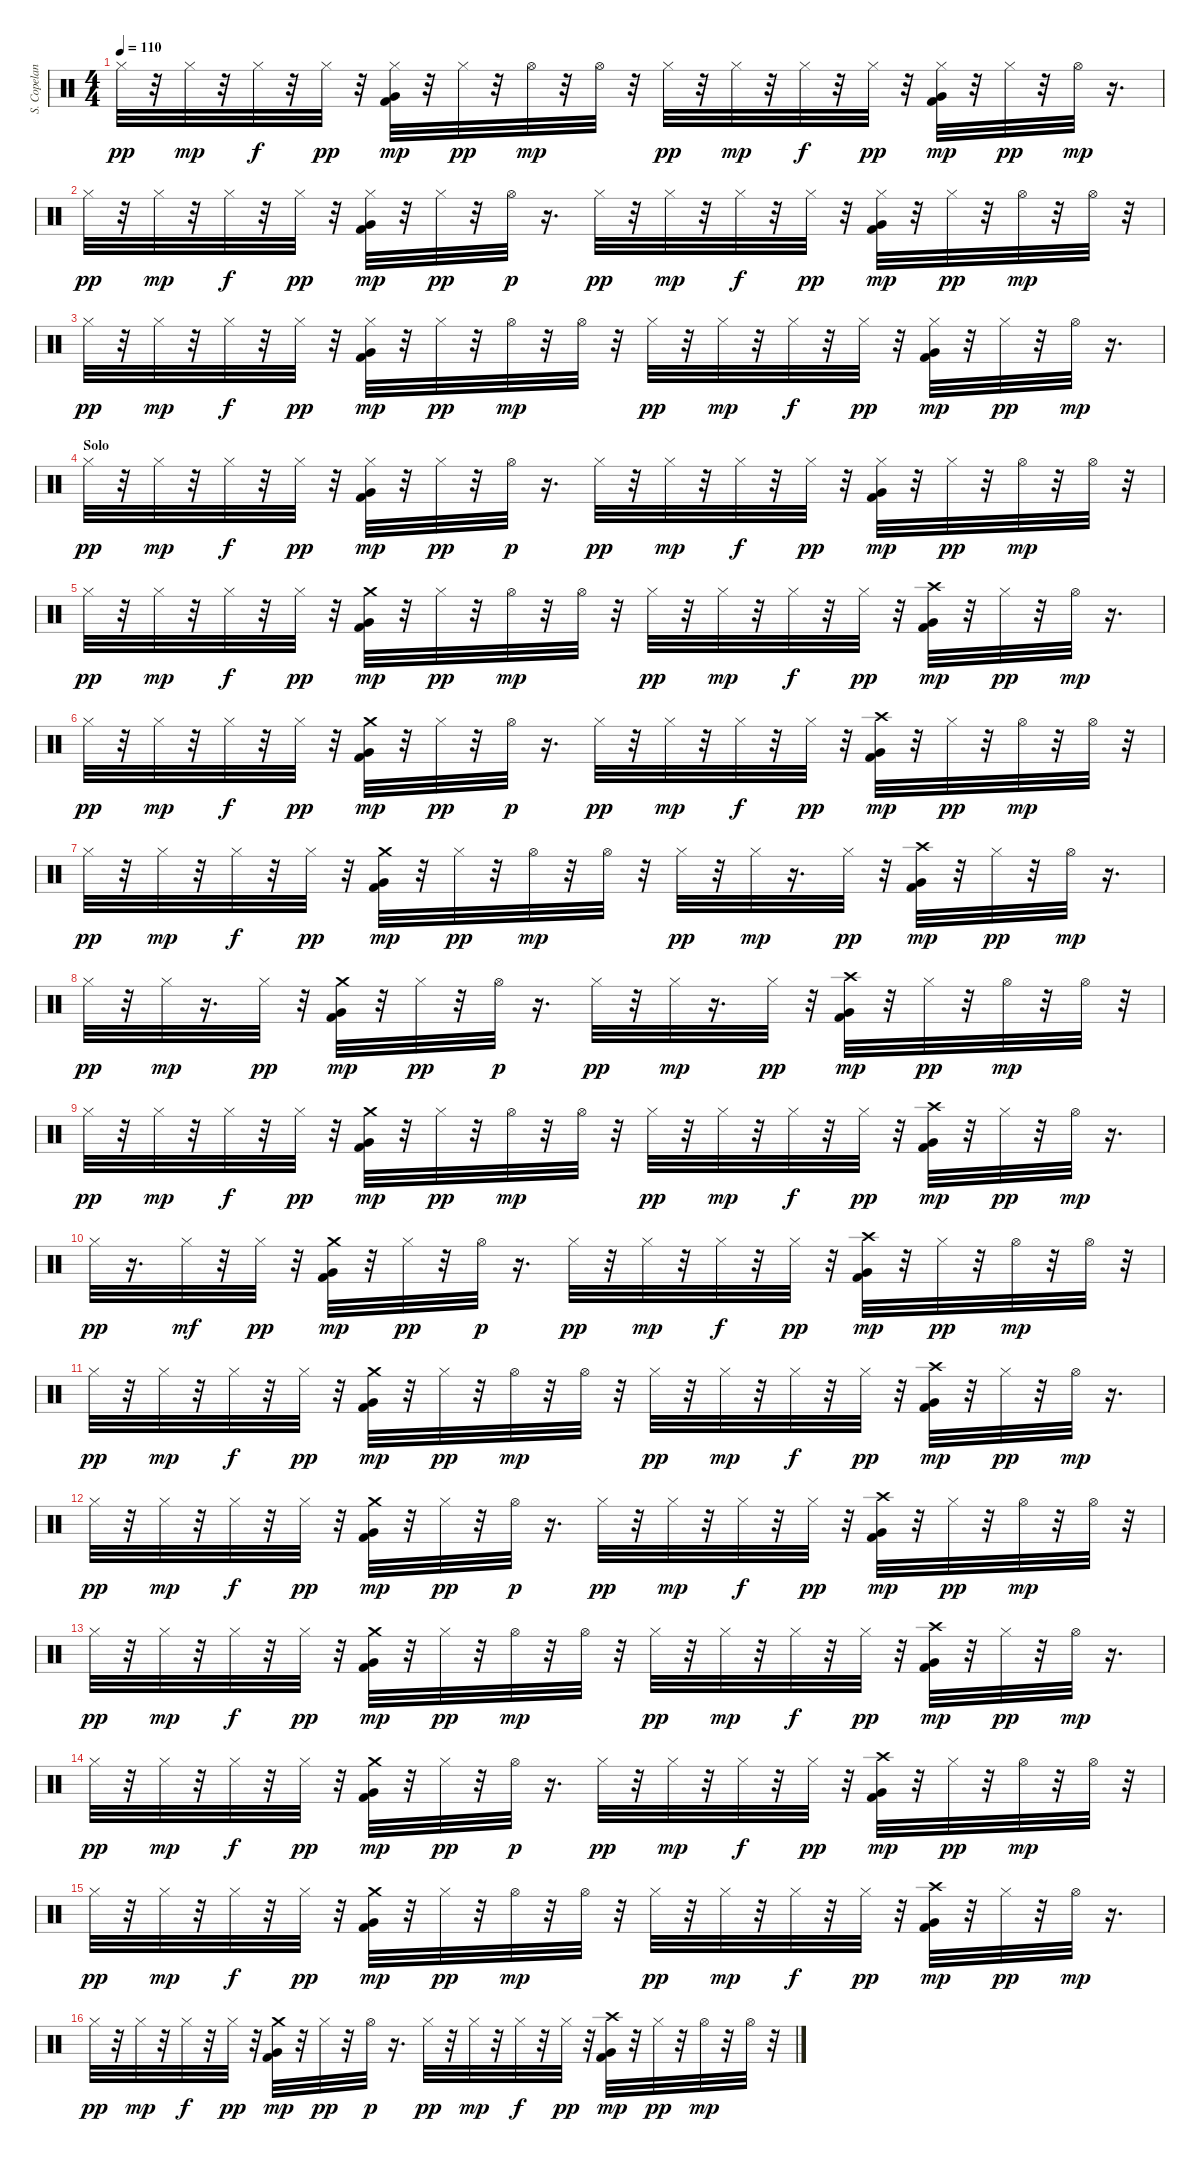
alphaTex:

\track ("S. Copeland" "S. Copelan") {instrument percussion}
\staff {score}
\articulation defaults
\ts (4 4)
\tempo 110
\clef neutral
\ks c "Hi-Hat (closed)".32{dy pp}
r.32 "Hi-Hat (closed)".32{dy mp} r.32 "Hi-Hat (closed)".32{dy f} r.32 "Hi-Hat (closed)".32{dy pp} r.32 ("Kick (hit) 2" "Hi-Hat (closed)" "Very Low Tom (hit)").32{dy mp} r.32 "Hi-Hat (closed)".32{dy pp} r.32 "Hi-Hat (open)".32{dy mp} r.32 "Hi-Hat (open)".32 r.32 "Hi-Hat (closed)".32{dy pp} r.32 "Hi-Hat (closed)".32{dy mp} r.32 "Hi-Hat (closed)".32{dy f} r.32 "Hi-Hat (closed)".32{dy pp} r.32 ("Kick (hit) 2" "Hi-Hat (closed)" "Very Low Tom (hit)").32{dy mp} r.32 "Hi-Hat (closed)".32{dy pp} r.32 "Hi-Hat (open)".32{dy mp} r.16{d} |
"Hi-Hat (closed)".32{dy pp} r.32 "Hi-Hat (closed)".32{dy mp} r.32 "Hi-Hat (closed)".32{dy f} r.32 "Hi-Hat (closed)".32{dy pp} r.32 ("Kick (hit) 2" "Hi-Hat (closed)" "Very Low Tom (hit)").32{dy mp} r.32 "Hi-Hat (closed)".32{dy pp} r.32 "Hi-Hat (open)".32{dy p} r.16{d} "Hi-Hat (closed)".32{dy pp} r.32 "Hi-Hat (closed)".32{dy mp} r.32 "Hi-Hat (closed)".32{dy f} r.32 "Hi-Hat (closed)".32{dy pp} r.32 ("Kick (hit) 2" "Hi-Hat (closed)" "Very Low Tom (hit)").32{dy mp} r.32 "Hi-Hat (closed)".32{dy pp} r.32 "Hi-Hat (open)".32{dy mp} r.32 "Hi-Hat (open)".32 r.32 |
"Hi-Hat (closed)".32{dy pp} r.32 "Hi-Hat (closed)".32{dy mp} r.32 "Hi-Hat (closed)".32{dy f} r.32 "Hi-Hat (closed)".32{dy pp} r.32 ("Kick (hit) 2" "Hi-Hat (closed)" "Very Low Tom (hit)").32{dy mp} r.32 "Hi-Hat (closed)".32{dy pp} r.32 "Hi-Hat (open)".32{dy mp} r.32 "Hi-Hat (open)".32 r.32 "Hi-Hat (closed)".32{dy pp} r.32 "Hi-Hat (closed)".32{dy mp} r.32 "Hi-Hat (closed)".32{dy f} r.32 "Hi-Hat (closed)".32{dy pp} r.32 ("Kick (hit) 2" "Hi-Hat (closed)" "Very Low Tom (hit)").32{dy mp} r.32 "Hi-Hat (closed)".32{dy pp} r.32 "Hi-Hat (open)".32{dy mp} r.16{d} |
\section ("" "Solo")
"Hi-Hat (closed)".32{dy pp} r.32 "Hi-Hat (closed)".32{dy mp} r.32 "Hi-Hat (closed)".32{dy f} r.32 "Hi-Hat (closed)".32{dy pp} r.32 ("Kick (hit) 2" "Hi-Hat (closed)" "Very Low Tom (hit)").32{dy mp} r.32 "Hi-Hat (closed)".32{dy pp} r.32 "Hi-Hat (open)".32{dy p} r.16{d} "Hi-Hat (closed)".32{dy pp} r.32 "Hi-Hat (closed)".32{dy mp} r.32 "Hi-Hat (closed)".32{dy f} r.32 "Hi-Hat (closed)".32{dy pp} r.32 ("Kick (hit) 2" "Hi-Hat (closed)" "Very Low Tom (hit)").32{dy mp} r.32 "Hi-Hat (closed)".32{dy pp} r.32 "Hi-Hat (open)".32{dy mp} r.32 "Hi-Hat (open)".32 r.32 |
"Hi-Hat (closed)".32{dy pp} r.32 "Hi-Hat (closed)".32{dy mp} r.32 "Hi-Hat (closed)".32{dy f} r.32 "Hi-Hat (closed)".32{dy pp} r.32 ("Kick (hit) 2" "Very Low Tom (hit)" "Crash medium (hit)").32{dy mp} r.32 "Hi-Hat (closed)".32{dy pp} r.32 "Hi-Hat (open)".32{dy mp} r.32 "Hi-Hat (open)".32 r.32 "Hi-Hat (closed)".32{dy pp} r.32 "Hi-Hat (closed)".32{dy mp} r.32 "Hi-Hat (closed)".32{dy f} r.32 "Hi-Hat (closed)".32{dy pp} r.32 ("Kick (hit) 2" "Very Low Tom (hit)" "Crash high (hit)").32{dy mp} r.32 "Hi-Hat (closed)".32{dy pp} r.32 "Hi-Hat (open)".32{dy mp} r.16{d} |
"Hi-Hat (closed)".32{dy pp} r.32 "Hi-Hat (closed)".32{dy mp} r.32 "Hi-Hat (closed)".32{dy f} r.32 "Hi-Hat (closed)".32{dy pp} r.32 ("Kick (hit) 2" "Very Low Tom (hit)" "Crash medium (hit)").32{dy mp} r.32 "Hi-Hat (closed)".32{dy pp} r.32 "Hi-Hat (open)".32{dy p} r.16{d} "Hi-Hat (closed)".32{dy pp} r.32 "Hi-Hat (closed)".32{dy mp} r.32 "Hi-Hat (closed)".32{dy f} r.32 "Hi-Hat (closed)".32{dy pp} r.32 ("Kick (hit) 2" "Very Low Tom (hit)" "Crash high (hit)").32{dy mp} r.32 "Hi-Hat (closed)".32{dy pp} r.32 "Hi-Hat (open)".32{dy mp} r.32 "Hi-Hat (open)".32 r.32 |
"Hi-Hat (closed)".32{dy pp} r.32 "Hi-Hat (closed)".32{dy mp} r.32 "Hi-Hat (closed)".32{dy f} r.32 "Hi-Hat (closed)".32{dy pp} r.32 ("Kick (hit) 2" "Very Low Tom (hit)" "Crash medium (hit)").32{dy mp} r.32 "Hi-Hat (closed)".32{dy pp} r.32 "Hi-Hat (open)".32{dy mp} r.32 "Hi-Hat (open)".32 r.32 "Hi-Hat (closed)".32{dy pp} r.32 "Hi-Hat (closed)".32{dy mp} r.16{d} "Hi-Hat (closed)".32{dy pp} r.32 ("Kick (hit) 2" "Very Low Tom (hit)" "Crash high (hit)").32{dy mp} r.32 "Hi-Hat (closed)".32{dy pp} r.32 "Hi-Hat (open)".32{dy mp} r.16{d} |
"Hi-Hat (closed)".32{dy pp} r.32 "Hi-Hat (closed)".32{dy mp} r.16{d} "Hi-Hat (closed)".32{dy pp} r.32 ("Kick (hit) 2" "Very Low Tom (hit)" "Crash medium (hit)").32{dy mp} r.32 "Hi-Hat (closed)".32{dy pp} r.32 "Hi-Hat (open)".32{dy p} r.16{d} "Hi-Hat (closed)".32{dy pp} r.32 "Hi-Hat (closed)".32{dy mp} r.16{d} "Hi-Hat (closed)".32{dy pp} r.32 ("Kick (hit) 2" "Very Low Tom (hit)" "Crash high (hit)").32{dy mp} r.32 "Hi-Hat (closed)".32{dy pp} r.32 "Hi-Hat (open)".32{dy mp} r.32 "Hi-Hat (open)".32 r.32 |
"Hi-Hat (closed)".32{dy pp} r.32 "Hi-Hat (closed)".32{dy mp} r.32 "Hi-Hat (closed)".32{dy f} r.32 "Hi-Hat (closed)".32{dy pp} r.32 ("Kick (hit) 2" "Very Low Tom (hit)" "Crash medium (hit)").32{dy mp} r.32 "Hi-Hat (closed)".32{dy pp} r.32 "Hi-Hat (open)".32{dy mp} r.32 "Hi-Hat (open)".32 r.32 "Hi-Hat (closed)".32{dy pp} r.32 "Hi-Hat (closed)".32{dy mp} r.32 "Hi-Hat (closed)".32{dy f} r.32 "Hi-Hat (closed)".32{dy pp} r.32 ("Kick (hit) 2" "Very Low Tom (hit)" "Crash high (hit)").32{dy mp} r.32 "Hi-Hat (closed)".32{dy pp} r.32 "Hi-Hat (open)".32{dy mp} r.16{d} |
"Hi-Hat (closed)".32{dy pp} r.16{d} "Hi-Hat (closed)".32{dy mf} r.32 "Hi-Hat (closed)".32{dy pp} r.32 ("Kick (hit) 2" "Very Low Tom (hit)" "Crash medium (hit)").32{dy mp} r.32 "Hi-Hat (closed)".32{dy pp} r.32 "Hi-Hat (open)".32{dy p} r.16{d} "Hi-Hat (closed)".32{dy pp} r.32 "Hi-Hat (closed)".32{dy mp} r.32 "Hi-Hat (closed)".32{dy f} r.32 "Hi-Hat (closed)".32{dy pp} r.32 ("Kick (hit) 2" "Very Low Tom (hit)" "Crash high (hit)").32{dy mp} r.32 "Hi-Hat (closed)".32{dy pp} r.32 "Hi-Hat (open)".32{dy mp} r.32 "Hi-Hat (open)".32 r.32 |
"Hi-Hat (closed)".32{dy pp} r.32 "Hi-Hat (closed)".32{dy mp} r.32 "Hi-Hat (closed)".32{dy f} r.32 "Hi-Hat (closed)".32{dy pp} r.32 ("Kick (hit) 2" "Very Low Tom (hit)" "Crash medium (hit)").32{dy mp} r.32 "Hi-Hat (closed)".32{dy pp} r.32 "Hi-Hat (open)".32{dy mp} r.32 "Hi-Hat (open)".32 r.32 "Hi-Hat (closed)".32{dy pp} r.32 "Hi-Hat (closed)".32{dy mp} r.32 "Hi-Hat (closed)".32{dy f} r.32 "Hi-Hat (closed)".32{dy pp} r.32 ("Kick (hit) 2" "Very Low Tom (hit)" "Crash high (hit)").32{dy mp} r.32 "Hi-Hat (closed)".32{dy pp} r.32 "Hi-Hat (open)".32{dy mp} r.16{d} |
"Hi-Hat (closed)".32{dy pp} r.32 "Hi-Hat (closed)".32{dy mp} r.32 "Hi-Hat (closed)".32{dy f} r.32 "Hi-Hat (closed)".32{dy pp} r.32 ("Kick (hit) 2" "Very Low Tom (hit)" "Crash medium (hit)").32{dy mp} r.32 "Hi-Hat (closed)".32{dy pp} r.32 "Hi-Hat (open)".32{dy p} r.16{d} "Hi-Hat (closed)".32{dy pp} r.32 "Hi-Hat (closed)".32{dy mp} r.32 "Hi-Hat (closed)".32{dy f} r.32 "Hi-Hat (closed)".32{dy pp} r.32 ("Kick (hit) 2" "Very Low Tom (hit)" "Crash high (hit)").32{dy mp} r.32 "Hi-Hat (closed)".32{dy pp} r.32 "Hi-Hat (open)".32{dy mp} r.32 "Hi-Hat (open)".32 r.32 |
"Hi-Hat (closed)".32{dy pp} r.32 "Hi-Hat (closed)".32{dy mp} r.32 "Hi-Hat (closed)".32{dy f} r.32 "Hi-Hat (closed)".32{dy pp} r.32 ("Kick (hit) 2" "Very Low Tom (hit)" "Crash medium (hit)").32{dy mp} r.32 "Hi-Hat (closed)".32{dy pp} r.32 "Hi-Hat (open)".32{dy mp} r.32 "Hi-Hat (open)".32 r.32 "Hi-Hat (closed)".32{dy pp} r.32 "Hi-Hat (closed)".32{dy mp} r.32 "Hi-Hat (closed)".32{dy f} r.32 "Hi-Hat (closed)".32{dy pp} r.32 ("Kick (hit) 2" "Very Low Tom (hit)" "Crash high (hit)").32{dy mp} r.32 "Hi-Hat (closed)".32{dy pp} r.32 "Hi-Hat (open)".32{dy mp} r.16{d} |
"Hi-Hat (closed)".32{dy pp} r.32 "Hi-Hat (closed)".32{dy mp} r.32 "Hi-Hat (closed)".32{dy f} r.32 "Hi-Hat (closed)".32{dy pp} r.32 ("Kick (hit) 2" "Very Low Tom (hit)" "Crash medium (hit)").32{dy mp} r.32 "Hi-Hat (closed)".32{dy pp} r.32 "Hi-Hat (open)".32{dy p} r.16{d} "Hi-Hat (closed)".32{dy pp} r.32 "Hi-Hat (closed)".32{dy mp} r.32 "Hi-Hat (closed)".32{dy f} r.32 "Hi-Hat (closed)".32{dy pp} r.32 ("Kick (hit) 2" "Very Low Tom (hit)" "Crash high (hit)").32{dy mp} r.32 "Hi-Hat (closed)".32{dy pp} r.32 "Hi-Hat (open)".32{dy mp} r.32 "Hi-Hat (open)".32 r.32 |
"Hi-Hat (closed)".32{dy pp} r.32 "Hi-Hat (closed)".32{dy mp} r.32 "Hi-Hat (closed)".32{dy f} r.32 "Hi-Hat (closed)".32{dy pp} r.32 ("Kick (hit) 2" "Very Low Tom (hit)" "Crash medium (hit)").32{dy mp} r.32 "Hi-Hat (closed)".32{dy pp} r.32 "Hi-Hat (open)".32{dy mp} r.32 "Hi-Hat (open)".32 r.32 "Hi-Hat (closed)".32{dy pp} r.32 "Hi-Hat (closed)".32{dy mp} r.32 "Hi-Hat (closed)".32{dy f} r.32 "Hi-Hat (closed)".32{dy pp} r.32 ("Kick (hit) 2" "Very Low Tom (hit)" "Crash high (hit)").32{dy mp} r.32 "Hi-Hat (closed)".32{dy pp} r.32 "Hi-Hat (open)".32{dy mp} r.16{d} |
"Hi-Hat (closed)".32{dy pp} r.32 "Hi-Hat (closed)".32{dy mp} r.32 "Hi-Hat (closed)".32{dy f} r.32 "Hi-Hat (closed)".32{dy pp} r.32 ("Kick (hit) 2" "Very Low Tom (hit)" "Crash medium (hit)").32{dy mp} r.32 "Hi-Hat (closed)".32{dy pp} r.32 "Hi-Hat (open)".32{dy p} r.16{d} "Hi-Hat (closed)".32{dy pp} r.32 "Hi-Hat (closed)".32{dy mp} r.32 "Hi-Hat (closed)".32{dy f} r.32 "Hi-Hat (closed)".32{dy pp} r.32 ("Kick (hit) 2" "Very Low Tom (hit)" "Crash high (hit)").32{dy mp} r.32 "Hi-Hat (closed)".32{dy pp} r.32 "Hi-Hat (open)".32{dy mp} r.32 "Hi-Hat (open)".32 r.32
